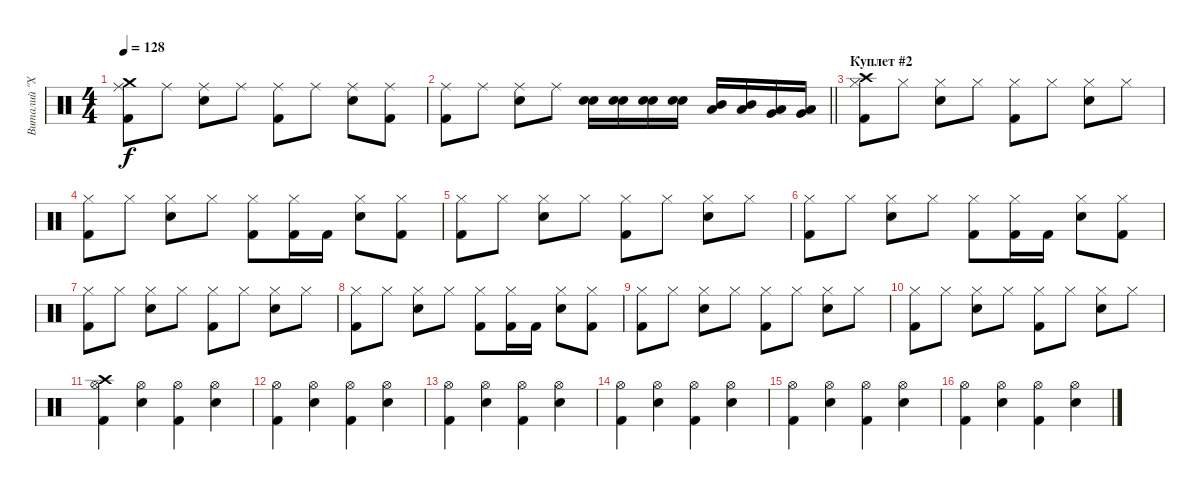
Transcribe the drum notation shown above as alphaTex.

\track ("Виталий \"Хамер\" Лядов" "Виталий \"Х") {instrument percussion}
\staff {score}
\articulation defaults
\ts (4 4)
\tempo 128
\clef neutral
\ks c
("Kick (hit) 2" "Ride (middle)" "Crash medium (hit)").8{dy f} "Ride (middle)".8 ("Electric Snare (hit)" "Ride (middle)").8 "Ride (middle)".8 ("Kick (hit) 2" "Ride (middle)").8 "Ride (middle)".8 ("Electric Snare (hit)" "Ride (middle)").8 ("Kick (hit) 2" "Ride (middle)").8 |
\barLineRight lightlight
("Kick (hit) 2" "Ride (middle)").8 "Ride (middle)".8 ("Electric Snare (hit)" "Ride (middle)").8 "Ride (middle)".8 ("Electric Snare (hit)" "Electric Snare (hit)").16 ("Electric Snare (hit)" "Electric Snare (hit)").16 ("Electric Snare (hit)" "Electric Snare (hit)").16 ("Electric Snare (hit)" "Electric Snare (hit)").16 ("Mid Tom (hit)" "Low Tom (hit)").16 ("Mid Tom (hit)" "Low Tom (hit)").16 ("Low Tom (hit)" "Very Low Tom (hit)").16 ("Low Tom (hit)" "Very Low Tom (hit)").16 |
\section ("" "Куплет #2")
("Kick (hit) 2" "Hi-Hat (closed)" "Crash high (hit)").8 "Hi-Hat (closed)".8 ("Electric Snare (hit)" "Hi-Hat (closed)").8 "Hi-Hat (closed)".8 ("Kick (hit) 2" "Hi-Hat (closed)").8 "Hi-Hat (closed)".8 ("Electric Snare (hit)" "Hi-Hat (closed)").8 "Hi-Hat (closed)".8 |
("Kick (hit) 2" "Hi-Hat (closed)").8 "Hi-Hat (closed)".8 ("Electric Snare (hit)" "Hi-Hat (closed)").8 "Hi-Hat (closed)".8 ("Kick (hit) 2" "Hi-Hat (closed)").8 ("Kick (hit) 2" "Hi-Hat (closed)").16 "Kick (hit) 2".16 ("Electric Snare (hit)" "Hi-Hat (closed)").8 ("Kick (hit) 2" "Hi-Hat (closed)").8 |
("Kick (hit) 2" "Hi-Hat (closed)").8 "Hi-Hat (closed)".8 ("Electric Snare (hit)" "Hi-Hat (closed)").8 "Hi-Hat (closed)".8 ("Kick (hit) 2" "Hi-Hat (closed)").8 "Hi-Hat (closed)".8 ("Electric Snare (hit)" "Hi-Hat (closed)").8 "Hi-Hat (closed)".8 |
("Kick (hit) 2" "Hi-Hat (closed)").8 "Hi-Hat (closed)".8 ("Electric Snare (hit)" "Hi-Hat (closed)").8 "Hi-Hat (closed)".8 ("Kick (hit) 2" "Hi-Hat (closed)").8 ("Kick (hit) 2" "Hi-Hat (closed)").16 "Kick (hit) 2".16 ("Electric Snare (hit)" "Hi-Hat (closed)").8 ("Kick (hit) 2" "Hi-Hat (closed)").8 |
("Kick (hit) 2" "Hi-Hat (closed)").8 "Hi-Hat (closed)".8 ("Electric Snare (hit)" "Hi-Hat (closed)").8 "Hi-Hat (closed)".8 ("Kick (hit) 2" "Hi-Hat (closed)").8 "Hi-Hat (closed)".8 ("Electric Snare (hit)" "Hi-Hat (closed)").8 "Hi-Hat (closed)".8 |
("Kick (hit) 2" "Hi-Hat (closed)").8 "Hi-Hat (closed)".8 ("Electric Snare (hit)" "Hi-Hat (closed)").8 "Hi-Hat (closed)".8 ("Kick (hit) 2" "Hi-Hat (closed)").8 ("Kick (hit) 2" "Hi-Hat (closed)").16 "Kick (hit) 2".16 ("Electric Snare (hit)" "Hi-Hat (closed)").8 ("Kick (hit) 2" "Hi-Hat (closed)").8 |
("Kick (hit) 2" "Hi-Hat (closed)").8 "Hi-Hat (closed)".8 ("Electric Snare (hit)" "Hi-Hat (closed)").8 "Hi-Hat (closed)".8 ("Kick (hit) 2" "Hi-Hat (closed)").8 "Hi-Hat (closed)".8 ("Electric Snare (hit)" "Hi-Hat (closed)").8 "Hi-Hat (closed)".8 |
("Kick (hit) 2" "Hi-Hat (closed)").8 "Hi-Hat (closed)".8 ("Electric Snare (hit)" "Hi-Hat (closed)").8 "Hi-Hat (closed)".8 ("Kick (hit) 2" "Hi-Hat (closed)").8 "Hi-Hat (closed)".8 ("Electric Snare (hit)" "Hi-Hat (closed)").8 "Hi-Hat (closed)".8 |
("Kick (hit) 2" "Hi-Hat (open)" "Crash high (hit)").4 ("Electric Snare (hit)" "Hi-Hat (open)").4 ("Kick (hit) 2" "Hi-Hat (open)").4 ("Electric Snare (hit)" "Hi-Hat (open)").4 |
("Kick (hit) 2" "Hi-Hat (open)").4 ("Electric Snare (hit)" "Hi-Hat (open)").4 ("Kick (hit) 2" "Hi-Hat (open)").4 ("Electric Snare (hit)" "Hi-Hat (open)").4 |
("Kick (hit) 2" "Hi-Hat (open)").4 ("Electric Snare (hit)" "Hi-Hat (open)").4 ("Kick (hit) 2" "Hi-Hat (open)").4 ("Electric Snare (hit)" "Hi-Hat (open)").4 |
("Kick (hit) 2" "Hi-Hat (open)").4 ("Electric Snare (hit)" "Hi-Hat (open)").4 ("Kick (hit) 2" "Hi-Hat (open)").4 ("Electric Snare (hit)" "Hi-Hat (open)").4 |
("Kick (hit) 2" "Hi-Hat (open)").4 ("Electric Snare (hit)" "Hi-Hat (open)").4 ("Kick (hit) 2" "Hi-Hat (open)").4 ("Electric Snare (hit)" "Hi-Hat (open)").4 |
("Kick (hit) 2" "Hi-Hat (open)").4 ("Electric Snare (hit)" "Hi-Hat (open)").4 ("Kick (hit) 2" "Hi-Hat (open)").4 ("Electric Snare (hit)" "Hi-Hat (open)").4
